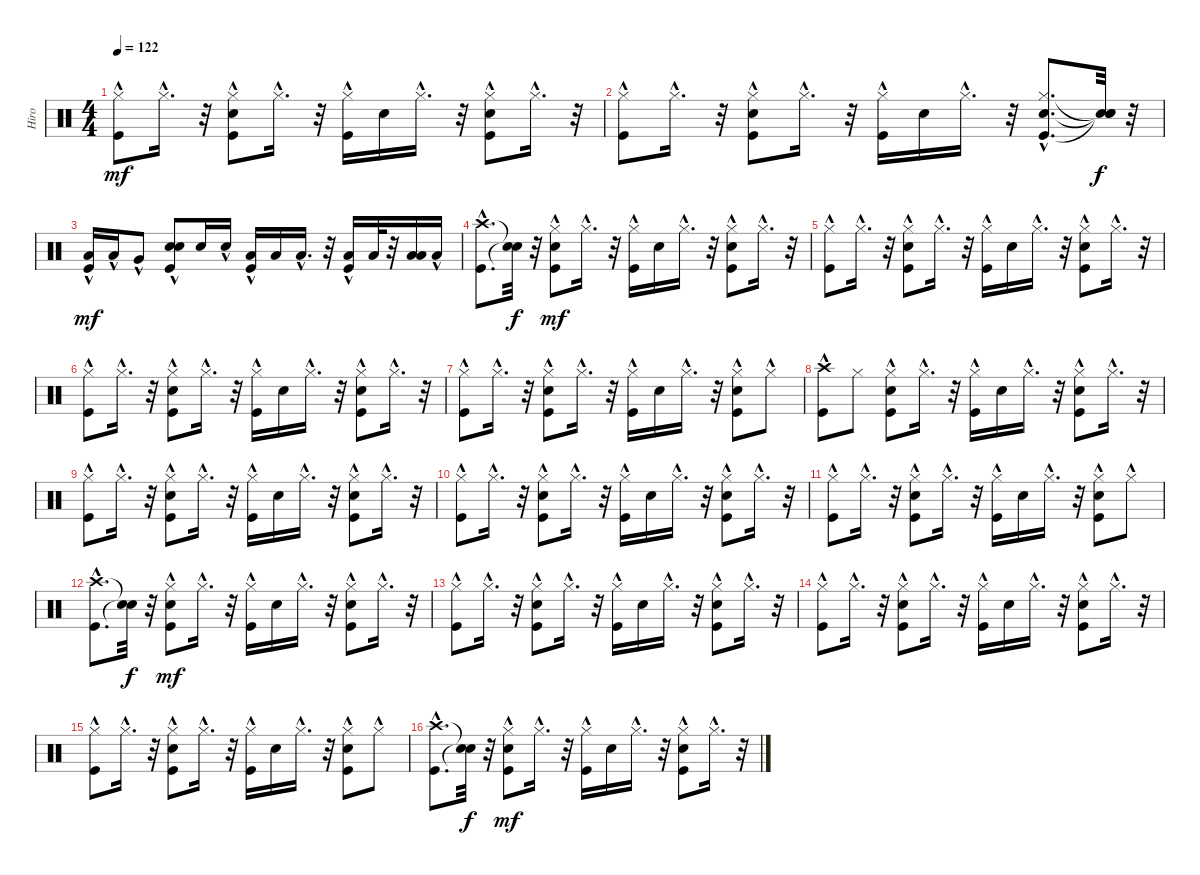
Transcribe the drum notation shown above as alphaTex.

\track ("Hiro" "Hiro") {instrument percussion}
\staff {score}
\articulation defaults
\ts (4 4)
\tempo 122
\clef neutral
\ks c
("Kick (hit)"{hac} "Hi-Hat (closed)"{hac}).8{dy mf} "Hi-Hat (closed)"{hac}.16{d} r.32 ("Kick (hit)"{hac} "Electric Snare (hit)"{hac} "Hi-Hat (closed)"{hac}).8 "Hi-Hat (closed)"{hac}.16{d} r.32 ("Kick (hit)"{hac} "Hi-Hat (closed)"{hac}).16 "Electric Snare (hit)".16 "Hi-Hat (closed)"{hac}.16{d} r.32 ("Electric Snare (hit)"{hac} "Hi-Hat (closed)"{hac} "Kick (hit)"{hac}).8 "Hi-Hat (closed)"{hac}.16{d} r.32 |
("Kick (hit)"{hac} "Hi-Hat (closed)"{hac}).8 "Hi-Hat (closed)"{hac}.16{d} r.32 ("Kick (hit)"{hac} "Electric Snare (hit)"{hac} "Hi-Hat (closed)"{hac}).8 "Hi-Hat (closed)"{hac}.16{d} r.32 ("Kick (hit)"{hac} "Hi-Hat (closed)"{hac}).16 "Electric Snare (hit)".16 "Hi-Hat (closed)"{hac}.16{d} r.32 ("Electric Snare (hit)"{hac} "Hi-Hat (closed)"{hac} "Kick (hit)"{hac}).8{d} ("Snare (hit)"{t} "Snare (hit)"{t} "Snare (hit)"{t}).32{dy f} r.32 |
("Low Tom (hit)" "Kick (hit)"{hac}).16{dy mf} "Low Tom (hit)"{hac}.16 "Very Low Tom (hit)"{hac}.8 ("Electric Snare (hit)" "Electric Snare (hit)" "Kick (hit)"{hac}).8 "Electric Snare (hit)".16 "Electric Snare (hit)"{hac}.16 ("Low Tom (hit)" "Kick (hit)"{hac}).16 "Low Tom (hit)".16 "Low Tom (hit)"{hac}.16{d} r.32 ("Low Tom (hit)" "Kick (hit)"{hac}).16 "Low Tom (hit)".32 r.32 ("Low Tom (hit)" "Low Tom (hit)").16 "Low Tom (hit)"{hac}.16 |
("Kick (hit)"{hac} "Crash high (hit)"{hac}).8{d} ("Snare (hit)"{t} "Snare (hit)"{t}).32{dy f} r.32 ("Kick (hit)"{hac} "Electric Snare (hit)"{hac} "Hi-Hat (closed)").8{dy mf} "Hi-Hat (closed)"{hac}.16{d} r.32 ("Kick (hit)"{hac} "Hi-Hat (closed)"{hac}).16 "Electric Snare (hit)".16 "Hi-Hat (closed)"{hac}.16{d} r.32 ("Electric Snare (hit)"{hac} "Hi-Hat (closed)"{hac} "Kick (hit)"{hac}).8 "Hi-Hat (closed)"{hac}.16{d} r.32 |
("Kick (hit)"{hac} "Hi-Hat (closed)"{hac}).8 "Hi-Hat (closed)"{hac}.16{d} r.32 ("Kick (hit)"{hac} "Electric Snare (hit)"{hac} "Hi-Hat (closed)"{hac}).8 "Hi-Hat (closed)"{hac}.16{d} r.32 ("Kick (hit)"{hac} "Hi-Hat (closed)"{hac}).16 "Electric Snare (hit)".16 "Hi-Hat (closed)"{hac}.16{d} r.32 ("Electric Snare (hit)"{hac} "Hi-Hat (closed)"{hac} "Kick (hit)"{hac}).8 "Hi-Hat (closed)"{hac}.16{d} r.32 |
("Kick (hit)"{hac} "Hi-Hat (closed)"{hac}).8 "Hi-Hat (closed)"{hac}.16{d} r.32 ("Kick (hit)"{hac} "Electric Snare (hit)"{hac} "Hi-Hat (closed)"{hac}).8 "Hi-Hat (closed)"{hac}.16{d} r.32 ("Kick (hit)"{hac} "Hi-Hat (closed)"{hac}).16 "Electric Snare (hit)".16 "Hi-Hat (closed)"{hac}.16{d} r.32 ("Electric Snare (hit)"{hac} "Hi-Hat (closed)"{hac} "Kick (hit)"{hac}).8 "Hi-Hat (closed)"{hac}.16{d} r.32 |
("Kick (hit)"{hac} "Hi-Hat (closed)"{hac}).8 "Hi-Hat (closed)"{hac}.16{d} r.32 ("Kick (hit)"{hac} "Electric Snare (hit)"{hac} "Hi-Hat (closed)"{hac}).8 "Hi-Hat (closed)"{hac}.16{d} r.32 ("Kick (hit)"{hac} "Hi-Hat (closed)"{hac}).16 "Electric Snare (hit)".16 "Hi-Hat (closed)"{hac}.16{d} r.32 ("Electric Snare (hit)"{hac} "Hi-Hat (closed)"{hac} "Kick (hit)"{hac}).8 "Hi-Hat (closed)"{hac}.8 |
("Kick (hit)"{hac} "Crash high (hit)"{hac}).8 "Hi-Hat (closed)".8 ("Kick (hit)"{hac} "Electric Snare (hit)"{hac} "Hi-Hat (closed)"{hac}).8 "Hi-Hat (closed)"{hac}.16{d} r.32 ("Kick (hit)"{hac} "Hi-Hat (closed)"{hac}).16 "Electric Snare (hit)".16 "Hi-Hat (closed)"{hac}.16{d} r.32 ("Electric Snare (hit)"{hac} "Hi-Hat (closed)"{hac} "Kick (hit)"{hac}).8 "Hi-Hat (closed)"{hac}.16{d} r.32 |
("Kick (hit)"{hac} "Hi-Hat (closed)"{hac}).8 "Hi-Hat (closed)"{hac}.16{d} r.32 ("Kick (hit)"{hac} "Electric Snare (hit)"{hac} "Hi-Hat (closed)"{hac}).8 "Hi-Hat (closed)"{hac}.16{d} r.32 ("Kick (hit)"{hac} "Hi-Hat (closed)"{hac}).16 "Electric Snare (hit)".16 "Hi-Hat (closed)"{hac}.16{d} r.32 ("Electric Snare (hit)"{hac} "Hi-Hat (closed)"{hac} "Kick (hit)"{hac}).8 "Hi-Hat (closed)"{hac}.16{d} r.32 |
("Kick (hit)"{hac} "Hi-Hat (closed)"{hac}).8 "Hi-Hat (closed)"{hac}.16{d} r.32 ("Kick (hit)"{hac} "Electric Snare (hit)"{hac} "Hi-Hat (closed)"{hac}).8 "Hi-Hat (closed)"{hac}.16{d} r.32 ("Kick (hit)"{hac} "Hi-Hat (closed)"{hac}).16 "Electric Snare (hit)".16 "Hi-Hat (closed)"{hac}.16{d} r.32 ("Electric Snare (hit)"{hac} "Hi-Hat (closed)"{hac} "Kick (hit)"{hac}).8 "Hi-Hat (closed)"{hac}.16{d} r.32 |
("Kick (hit)"{hac} "Hi-Hat (closed)"{hac}).8 "Hi-Hat (closed)"{hac}.16{d} r.32 ("Kick (hit)"{hac} "Electric Snare (hit)"{hac} "Hi-Hat (closed)"{hac}).8 "Hi-Hat (closed)"{hac}.16{d} r.32 ("Kick (hit)"{hac} "Hi-Hat (closed)"{hac}).16 "Electric Snare (hit)".16 "Hi-Hat (closed)"{hac}.16{d} r.32 ("Electric Snare (hit)"{hac} "Hi-Hat (closed)"{hac} "Kick (hit)"{hac}).8 "Hi-Hat (closed)"{hac}.8 |
("Kick (hit)"{hac} "Crash high (hit)"{hac}).8{d} ("Snare (hit)"{t} "Snare (hit)"{t}).32{dy f} r.32 ("Kick (hit)"{hac} "Electric Snare (hit)"{hac} "Hi-Hat (closed)").8{dy mf} "Hi-Hat (closed)"{hac}.16{d} r.32 ("Kick (hit)"{hac} "Hi-Hat (closed)"{hac}).16 "Electric Snare (hit)".16 "Hi-Hat (closed)"{hac}.16{d} r.32 ("Electric Snare (hit)"{hac} "Hi-Hat (closed)"{hac} "Kick (hit)"{hac}).8 "Hi-Hat (closed)"{hac}.16{d} r.32 |
("Kick (hit)"{hac} "Hi-Hat (closed)"{hac}).8 "Hi-Hat (closed)"{hac}.16{d} r.32 ("Kick (hit)"{hac} "Electric Snare (hit)"{hac} "Hi-Hat (closed)"{hac}).8 "Hi-Hat (closed)"{hac}.16{d} r.32 ("Kick (hit)"{hac} "Hi-Hat (closed)"{hac}).16 "Electric Snare (hit)".16 "Hi-Hat (closed)"{hac}.16{d} r.32 ("Electric Snare (hit)"{hac} "Hi-Hat (closed)"{hac} "Kick (hit)"{hac}).8 "Hi-Hat (closed)"{hac}.16{d} r.32 |
("Kick (hit)"{hac} "Hi-Hat (closed)"{hac}).8 "Hi-Hat (closed)"{hac}.16{d} r.32 ("Kick (hit)"{hac} "Electric Snare (hit)"{hac} "Hi-Hat (closed)"{hac}).8 "Hi-Hat (closed)"{hac}.16{d} r.32 ("Kick (hit)"{hac} "Hi-Hat (closed)"{hac}).16 "Electric Snare (hit)".16 "Hi-Hat (closed)"{hac}.16{d} r.32 ("Electric Snare (hit)"{hac} "Hi-Hat (closed)"{hac} "Kick (hit)"{hac}).8 "Hi-Hat (closed)"{hac}.16{d} r.32 |
("Kick (hit)"{hac} "Hi-Hat (closed)"{hac}).8 "Hi-Hat (closed)"{hac}.16{d} r.32 ("Kick (hit)"{hac} "Electric Snare (hit)"{hac} "Hi-Hat (closed)"{hac}).8 "Hi-Hat (closed)"{hac}.16{d} r.32 ("Kick (hit)"{hac} "Hi-Hat (closed)"{hac}).16 "Electric Snare (hit)".16 "Hi-Hat (closed)"{hac}.16{d} r.32 ("Electric Snare (hit)"{hac} "Hi-Hat (closed)"{hac} "Kick (hit)"{hac}).8 "Hi-Hat (closed)"{hac}.8 |
("Kick (hit)"{hac} "Crash high (hit)"{hac}).8{d} ("Snare (hit)"{t} "Snare (hit)"{t}).32{dy f} r.32 ("Kick (hit)"{hac} "Electric Snare (hit)"{hac} "Hi-Hat (closed)").8{dy mf} "Hi-Hat (closed)"{hac}.16{d} r.32 ("Kick (hit)"{hac} "Hi-Hat (closed)"{hac}).16 "Electric Snare (hit)".16 "Hi-Hat (closed)"{hac}.16{d} r.32 ("Electric Snare (hit)"{hac} "Hi-Hat (closed)"{hac} "Kick (hit)"{hac}).8 "Hi-Hat (closed)"{hac}.16{d} r.32
